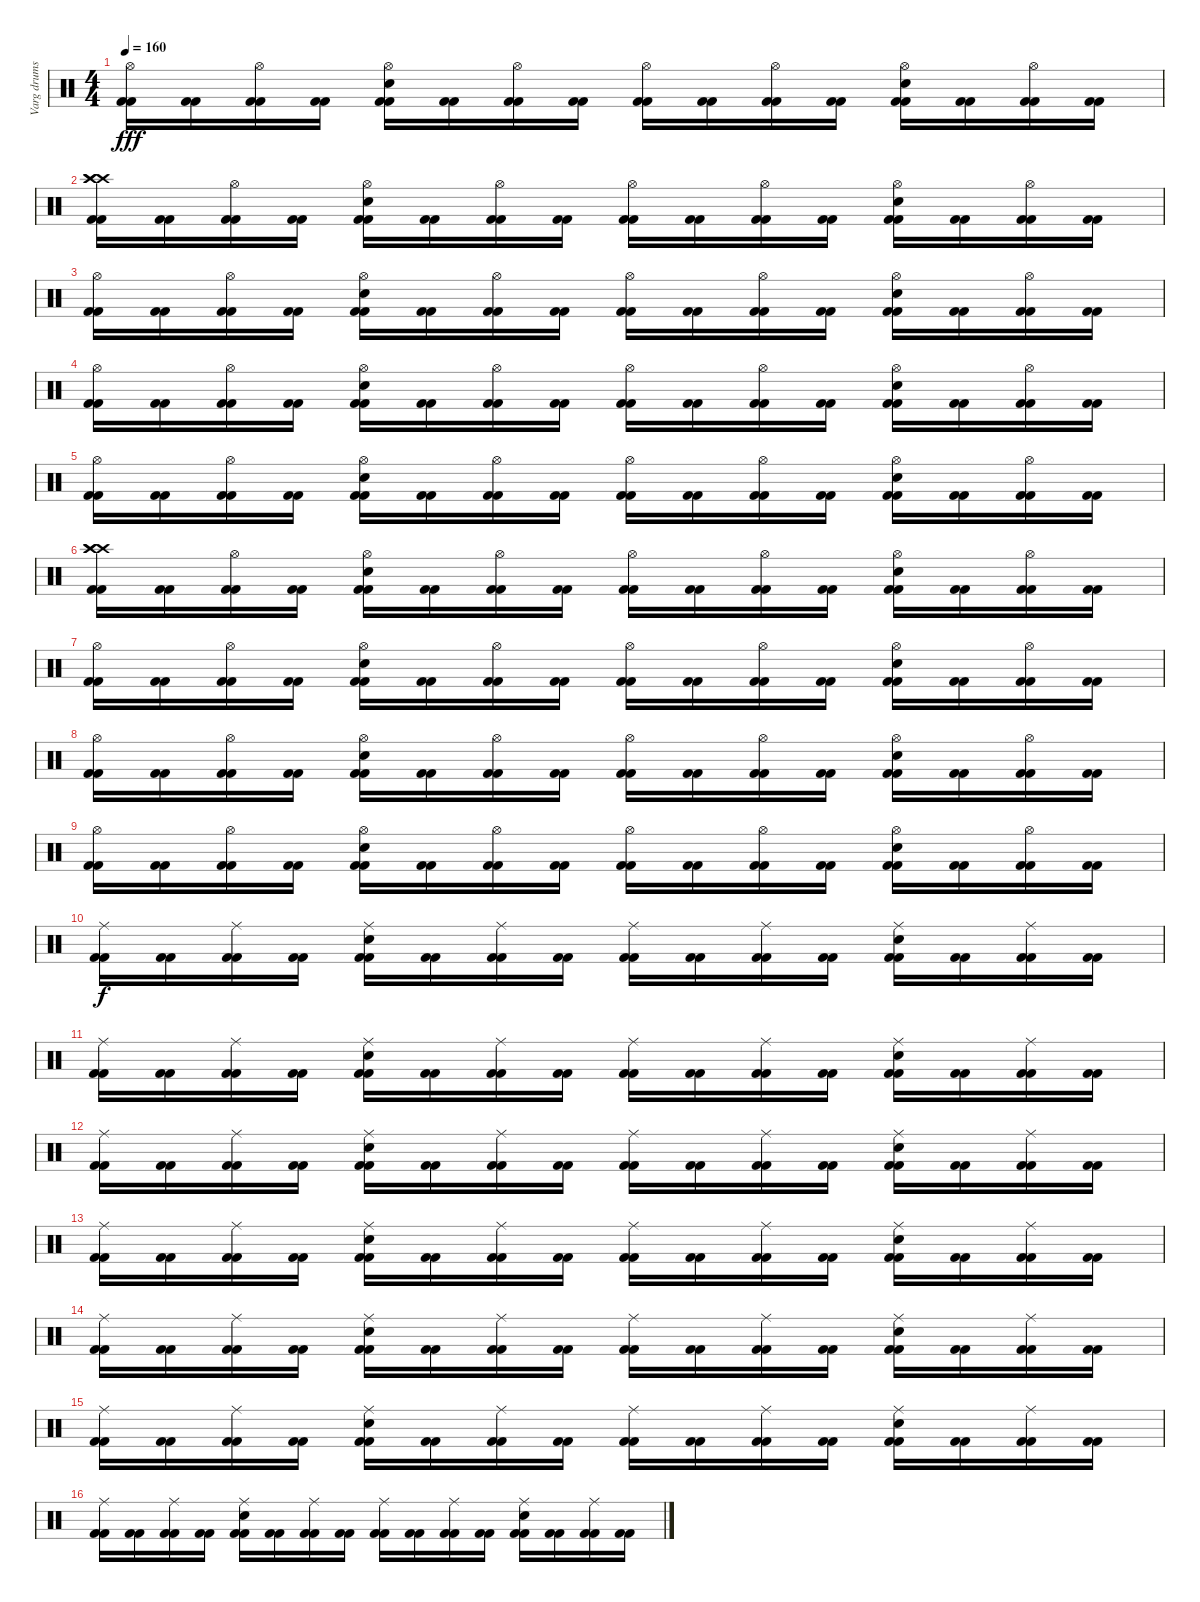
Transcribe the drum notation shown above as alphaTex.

\track ("Varg drums" "Varg drums") {instrument percussion}
\staff {score}
\articulation defaults
\ts (4 4)
\tempo 160
\clef neutral
\ks c
("Hi-Hat (open)" "Kick (hit) 2" "Kick (hit) 2").16{dy fff} ("Kick (hit) 2" "Kick (hit) 2").16 ("Hi-Hat (open)" "Kick (hit) 2" "Kick (hit) 2").16 ("Kick (hit) 2" "Kick (hit) 2").16 ("Hi-Hat (open)" "Electric Snare (hit)" "Kick (hit) 2" "Kick (hit) 2").16 ("Kick (hit) 2" "Kick (hit) 2").16 ("Hi-Hat (open)" "Kick (hit) 2" "Kick (hit) 2").16 ("Kick (hit) 2" "Kick (hit) 2").16 ("Hi-Hat (open)" "Kick (hit) 2" "Kick (hit) 2").16 ("Kick (hit) 2" "Kick (hit) 2").16 ("Hi-Hat (open)" "Kick (hit) 2" "Kick (hit) 2").16 ("Kick (hit) 2" "Kick (hit) 2").16 ("Hi-Hat (open)" "Electric Snare (hit)" "Kick (hit) 2" "Kick (hit) 2").16 ("Kick (hit) 2" "Kick (hit) 2").16 ("Hi-Hat (open)" "Kick (hit) 2" "Kick (hit) 2").16 ("Kick (hit) 2" "Kick (hit) 2").16 |
("Crash high (hit)" "Crash high (hit)" "Crash high (hit)" "Kick (hit) 2" "Kick (hit) 2").16 ("Kick (hit) 2" "Kick (hit) 2").16 ("Hi-Hat (open)" "Kick (hit) 2" "Kick (hit) 2").16 ("Kick (hit) 2" "Kick (hit) 2").16 ("Hi-Hat (open)" "Electric Snare (hit)" "Kick (hit) 2" "Kick (hit) 2").16 ("Kick (hit) 2" "Kick (hit) 2").16 ("Hi-Hat (open)" "Kick (hit) 2" "Kick (hit) 2").16 ("Kick (hit) 2" "Kick (hit) 2").16 ("Hi-Hat (open)" "Kick (hit) 2" "Kick (hit) 2").16 ("Kick (hit) 2" "Kick (hit) 2").16 ("Hi-Hat (open)" "Kick (hit) 2" "Kick (hit) 2").16 ("Kick (hit) 2" "Kick (hit) 2").16 ("Hi-Hat (open)" "Electric Snare (hit)" "Kick (hit) 2" "Kick (hit) 2").16 ("Kick (hit) 2" "Kick (hit) 2").16 ("Hi-Hat (open)" "Kick (hit) 2" "Kick (hit) 2").16 ("Kick (hit) 2" "Kick (hit) 2").16 |
("Hi-Hat (open)" "Kick (hit) 2" "Kick (hit) 2").16 ("Kick (hit) 2" "Kick (hit) 2").16 ("Hi-Hat (open)" "Kick (hit) 2" "Kick (hit) 2").16 ("Kick (hit) 2" "Kick (hit) 2").16 ("Hi-Hat (open)" "Electric Snare (hit)" "Kick (hit) 2" "Kick (hit) 2").16 ("Kick (hit) 2" "Kick (hit) 2").16 ("Hi-Hat (open)" "Kick (hit) 2" "Kick (hit) 2").16 ("Kick (hit) 2" "Kick (hit) 2").16 ("Hi-Hat (open)" "Kick (hit) 2" "Kick (hit) 2").16 ("Kick (hit) 2" "Kick (hit) 2").16 ("Hi-Hat (open)" "Kick (hit) 2" "Kick (hit) 2").16 ("Kick (hit) 2" "Kick (hit) 2").16 ("Hi-Hat (open)" "Electric Snare (hit)" "Kick (hit) 2" "Kick (hit) 2").16 ("Kick (hit) 2" "Kick (hit) 2").16 ("Hi-Hat (open)" "Kick (hit) 2" "Kick (hit) 2").16 ("Kick (hit) 2" "Kick (hit) 2").16 |
("Hi-Hat (open)" "Kick (hit) 2" "Kick (hit) 2").16 ("Kick (hit) 2" "Kick (hit) 2").16 ("Hi-Hat (open)" "Kick (hit) 2" "Kick (hit) 2").16 ("Kick (hit) 2" "Kick (hit) 2").16 ("Hi-Hat (open)" "Electric Snare (hit)" "Kick (hit) 2" "Kick (hit) 2").16 ("Kick (hit) 2" "Kick (hit) 2").16 ("Hi-Hat (open)" "Kick (hit) 2" "Kick (hit) 2").16 ("Kick (hit) 2" "Kick (hit) 2").16 ("Hi-Hat (open)" "Kick (hit) 2" "Kick (hit) 2").16 ("Kick (hit) 2" "Kick (hit) 2").16 ("Hi-Hat (open)" "Kick (hit) 2" "Kick (hit) 2").16 ("Kick (hit) 2" "Kick (hit) 2").16 ("Hi-Hat (open)" "Electric Snare (hit)" "Kick (hit) 2" "Kick (hit) 2").16 ("Kick (hit) 2" "Kick (hit) 2").16 ("Hi-Hat (open)" "Kick (hit) 2" "Kick (hit) 2").16 ("Kick (hit) 2" "Kick (hit) 2").16 |
("Hi-Hat (open)" "Kick (hit) 2" "Kick (hit) 2").16 ("Kick (hit) 2" "Kick (hit) 2").16 ("Hi-Hat (open)" "Kick (hit) 2" "Kick (hit) 2").16 ("Kick (hit) 2" "Kick (hit) 2").16 ("Hi-Hat (open)" "Electric Snare (hit)" "Kick (hit) 2" "Kick (hit) 2").16 ("Kick (hit) 2" "Kick (hit) 2").16 ("Hi-Hat (open)" "Kick (hit) 2" "Kick (hit) 2").16 ("Kick (hit) 2" "Kick (hit) 2").16 ("Hi-Hat (open)" "Kick (hit) 2" "Kick (hit) 2").16 ("Kick (hit) 2" "Kick (hit) 2").16 ("Hi-Hat (open)" "Kick (hit) 2" "Kick (hit) 2").16 ("Kick (hit) 2" "Kick (hit) 2").16 ("Hi-Hat (open)" "Electric Snare (hit)" "Kick (hit) 2" "Kick (hit) 2").16 ("Kick (hit) 2" "Kick (hit) 2").16 ("Hi-Hat (open)" "Kick (hit) 2" "Kick (hit) 2").16 ("Kick (hit) 2" "Kick (hit) 2").16 |
("Crash high (hit)" "Crash high (hit)" "Crash high (hit)" "Kick (hit) 2" "Kick (hit) 2").16 ("Kick (hit) 2" "Kick (hit) 2").16 ("Hi-Hat (open)" "Kick (hit) 2" "Kick (hit) 2").16 ("Kick (hit) 2" "Kick (hit) 2").16 ("Hi-Hat (open)" "Electric Snare (hit)" "Kick (hit) 2" "Kick (hit) 2").16 ("Kick (hit) 2" "Kick (hit) 2").16 ("Hi-Hat (open)" "Kick (hit) 2" "Kick (hit) 2").16 ("Kick (hit) 2" "Kick (hit) 2").16 ("Hi-Hat (open)" "Kick (hit) 2" "Kick (hit) 2").16 ("Kick (hit) 2" "Kick (hit) 2").16 ("Hi-Hat (open)" "Kick (hit) 2" "Kick (hit) 2").16 ("Kick (hit) 2" "Kick (hit) 2").16 ("Hi-Hat (open)" "Electric Snare (hit)" "Kick (hit) 2" "Kick (hit) 2").16 ("Kick (hit) 2" "Kick (hit) 2").16 ("Hi-Hat (open)" "Kick (hit) 2" "Kick (hit) 2").16 ("Kick (hit) 2" "Kick (hit) 2").16 |
("Hi-Hat (open)" "Kick (hit) 2" "Kick (hit) 2").16 ("Kick (hit) 2" "Kick (hit) 2").16 ("Hi-Hat (open)" "Kick (hit) 2" "Kick (hit) 2").16 ("Kick (hit) 2" "Kick (hit) 2").16 ("Hi-Hat (open)" "Electric Snare (hit)" "Kick (hit) 2" "Kick (hit) 2").16 ("Kick (hit) 2" "Kick (hit) 2").16 ("Hi-Hat (open)" "Kick (hit) 2" "Kick (hit) 2").16 ("Kick (hit) 2" "Kick (hit) 2").16 ("Hi-Hat (open)" "Kick (hit) 2" "Kick (hit) 2").16 ("Kick (hit) 2" "Kick (hit) 2").16 ("Hi-Hat (open)" "Kick (hit) 2" "Kick (hit) 2").16 ("Kick (hit) 2" "Kick (hit) 2").16 ("Hi-Hat (open)" "Electric Snare (hit)" "Kick (hit) 2" "Kick (hit) 2").16 ("Kick (hit) 2" "Kick (hit) 2").16 ("Hi-Hat (open)" "Kick (hit) 2" "Kick (hit) 2").16 ("Kick (hit) 2" "Kick (hit) 2").16 |
("Hi-Hat (open)" "Kick (hit) 2" "Kick (hit) 2").16 ("Kick (hit) 2" "Kick (hit) 2").16 ("Hi-Hat (open)" "Kick (hit) 2" "Kick (hit) 2").16 ("Kick (hit) 2" "Kick (hit) 2").16 ("Hi-Hat (open)" "Electric Snare (hit)" "Kick (hit) 2" "Kick (hit) 2").16 ("Kick (hit) 2" "Kick (hit) 2").16 ("Hi-Hat (open)" "Kick (hit) 2" "Kick (hit) 2").16 ("Kick (hit) 2" "Kick (hit) 2").16 ("Hi-Hat (open)" "Kick (hit) 2" "Kick (hit) 2").16 ("Kick (hit) 2" "Kick (hit) 2").16 ("Hi-Hat (open)" "Kick (hit) 2" "Kick (hit) 2").16 ("Kick (hit) 2" "Kick (hit) 2").16 ("Hi-Hat (open)" "Electric Snare (hit)" "Kick (hit) 2" "Kick (hit) 2").16 ("Kick (hit) 2" "Kick (hit) 2").16 ("Hi-Hat (open)" "Kick (hit) 2" "Kick (hit) 2").16 ("Kick (hit) 2" "Kick (hit) 2").16 |
("Hi-Hat (open)" "Kick (hit) 2" "Kick (hit) 2").16 ("Kick (hit) 2" "Kick (hit) 2").16 ("Hi-Hat (open)" "Kick (hit) 2" "Kick (hit) 2").16 ("Kick (hit) 2" "Kick (hit) 2").16 ("Hi-Hat (open)" "Electric Snare (hit)" "Kick (hit) 2" "Kick (hit) 2").16 ("Kick (hit) 2" "Kick (hit) 2").16 ("Hi-Hat (open)" "Kick (hit) 2" "Kick (hit) 2").16 ("Kick (hit) 2" "Kick (hit) 2").16 ("Hi-Hat (open)" "Kick (hit) 2" "Kick (hit) 2").16 ("Kick (hit) 2" "Kick (hit) 2").16 ("Hi-Hat (open)" "Kick (hit) 2" "Kick (hit) 2").16 ("Kick (hit) 2" "Kick (hit) 2").16 ("Hi-Hat (open)" "Electric Snare (hit)" "Kick (hit) 2" "Kick (hit) 2").16 ("Kick (hit) 2" "Kick (hit) 2").16 ("Hi-Hat (open)" "Kick (hit) 2" "Kick (hit) 2").16 ("Kick (hit) 2" "Kick (hit) 2").16 |
("Ride (middle)" "Kick (hit) 2" "Kick (hit) 2").16{dy f} ("Kick (hit) 2" "Kick (hit) 2").16 ("Ride (middle)" "Kick (hit) 2" "Kick (hit) 2").16 ("Kick (hit) 2" "Kick (hit) 2").16 ("Ride (middle)" "Electric Snare (hit)" "Kick (hit) 2" "Kick (hit) 2").16 ("Kick (hit) 2" "Kick (hit) 2").16 ("Ride (middle)" "Kick (hit) 2" "Kick (hit) 2").16 ("Kick (hit) 2" "Kick (hit) 2").16 ("Ride (middle)" "Kick (hit) 2" "Kick (hit) 2").16 ("Kick (hit) 2" "Kick (hit) 2").16 ("Ride (middle)" "Kick (hit) 2" "Kick (hit) 2").16 ("Kick (hit) 2" "Kick (hit) 2").16 ("Ride (middle)" "Electric Snare (hit)" "Kick (hit) 2" "Kick (hit) 2").16 ("Kick (hit) 2" "Kick (hit) 2").16 ("Ride (middle)" "Kick (hit) 2" "Kick (hit) 2").16 ("Kick (hit) 2" "Kick (hit) 2").16 |
("Ride (middle)" "Kick (hit) 2" "Kick (hit) 2").16 ("Kick (hit) 2" "Kick (hit) 2").16 ("Ride (middle)" "Kick (hit) 2" "Kick (hit) 2").16 ("Kick (hit) 2" "Kick (hit) 2").16 ("Ride (middle)" "Electric Snare (hit)" "Kick (hit) 2" "Kick (hit) 2").16 ("Kick (hit) 2" "Kick (hit) 2").16 ("Ride (middle)" "Kick (hit) 2" "Kick (hit) 2").16 ("Kick (hit) 2" "Kick (hit) 2").16 ("Ride (middle)" "Kick (hit) 2" "Kick (hit) 2").16 ("Kick (hit) 2" "Kick (hit) 2").16 ("Ride (middle)" "Kick (hit) 2" "Kick (hit) 2").16 ("Kick (hit) 2" "Kick (hit) 2").16 ("Ride (middle)" "Electric Snare (hit)" "Kick (hit) 2" "Kick (hit) 2").16 ("Kick (hit) 2" "Kick (hit) 2").16 ("Ride (middle)" "Kick (hit) 2" "Kick (hit) 2").16 ("Kick (hit) 2" "Kick (hit) 2").16 |
("Ride (middle)" "Kick (hit) 2" "Kick (hit) 2").16 ("Kick (hit) 2" "Kick (hit) 2").16 ("Ride (middle)" "Kick (hit) 2" "Kick (hit) 2").16 ("Kick (hit) 2" "Kick (hit) 2").16 ("Ride (middle)" "Electric Snare (hit)" "Kick (hit) 2" "Kick (hit) 2").16 ("Kick (hit) 2" "Kick (hit) 2").16 ("Ride (middle)" "Kick (hit) 2" "Kick (hit) 2").16 ("Kick (hit) 2" "Kick (hit) 2").16 ("Ride (middle)" "Kick (hit) 2" "Kick (hit) 2").16 ("Kick (hit) 2" "Kick (hit) 2").16 ("Ride (middle)" "Kick (hit) 2" "Kick (hit) 2").16 ("Kick (hit) 2" "Kick (hit) 2").16 ("Ride (middle)" "Electric Snare (hit)" "Kick (hit) 2" "Kick (hit) 2").16 ("Kick (hit) 2" "Kick (hit) 2").16 ("Ride (middle)" "Kick (hit) 2" "Kick (hit) 2").16 ("Kick (hit) 2" "Kick (hit) 2").16 |
("Ride (middle)" "Kick (hit) 2" "Kick (hit) 2").16 ("Kick (hit) 2" "Kick (hit) 2").16 ("Ride (middle)" "Kick (hit) 2" "Kick (hit) 2").16 ("Kick (hit) 2" "Kick (hit) 2").16 ("Ride (middle)" "Electric Snare (hit)" "Kick (hit) 2" "Kick (hit) 2").16 ("Kick (hit) 2" "Kick (hit) 2").16 ("Ride (middle)" "Kick (hit) 2" "Kick (hit) 2").16 ("Kick (hit) 2" "Kick (hit) 2").16 ("Ride (middle)" "Kick (hit) 2" "Kick (hit) 2").16 ("Kick (hit) 2" "Kick (hit) 2").16 ("Ride (middle)" "Kick (hit) 2" "Kick (hit) 2").16 ("Kick (hit) 2" "Kick (hit) 2").16 ("Ride (middle)" "Electric Snare (hit)" "Kick (hit) 2" "Kick (hit) 2").16 ("Kick (hit) 2" "Kick (hit) 2").16 ("Ride (middle)" "Kick (hit) 2" "Kick (hit) 2").16 ("Kick (hit) 2" "Kick (hit) 2").16 |
("Ride (middle)" "Kick (hit) 2" "Kick (hit) 2").16 ("Kick (hit) 2" "Kick (hit) 2").16 ("Ride (middle)" "Kick (hit) 2" "Kick (hit) 2").16 ("Kick (hit) 2" "Kick (hit) 2").16 ("Ride (middle)" "Electric Snare (hit)" "Kick (hit) 2" "Kick (hit) 2").16 ("Kick (hit) 2" "Kick (hit) 2").16 ("Ride (middle)" "Kick (hit) 2" "Kick (hit) 2").16 ("Kick (hit) 2" "Kick (hit) 2").16 ("Ride (middle)" "Kick (hit) 2" "Kick (hit) 2").16 ("Kick (hit) 2" "Kick (hit) 2").16 ("Ride (middle)" "Kick (hit) 2" "Kick (hit) 2").16 ("Kick (hit) 2" "Kick (hit) 2").16 ("Ride (middle)" "Electric Snare (hit)" "Kick (hit) 2" "Kick (hit) 2").16 ("Kick (hit) 2" "Kick (hit) 2").16 ("Ride (middle)" "Kick (hit) 2" "Kick (hit) 2").16 ("Kick (hit) 2" "Kick (hit) 2").16 |
("Ride (middle)" "Kick (hit) 2" "Kick (hit) 2").16 ("Kick (hit) 2" "Kick (hit) 2").16 ("Ride (middle)" "Kick (hit) 2" "Kick (hit) 2").16 ("Kick (hit) 2" "Kick (hit) 2").16 ("Ride (middle)" "Electric Snare (hit)" "Kick (hit) 2" "Kick (hit) 2").16 ("Kick (hit) 2" "Kick (hit) 2").16 ("Ride (middle)" "Kick (hit) 2" "Kick (hit) 2").16 ("Kick (hit) 2" "Kick (hit) 2").16 ("Ride (middle)" "Kick (hit) 2" "Kick (hit) 2").16 ("Kick (hit) 2" "Kick (hit) 2").16 ("Ride (middle)" "Kick (hit) 2" "Kick (hit) 2").16 ("Kick (hit) 2" "Kick (hit) 2").16 ("Ride (middle)" "Electric Snare (hit)" "Kick (hit) 2" "Kick (hit) 2").16 ("Kick (hit) 2" "Kick (hit) 2").16 ("Ride (middle)" "Kick (hit) 2" "Kick (hit) 2").16 ("Kick (hit) 2" "Kick (hit) 2").16 |
("Ride (middle)" "Kick (hit) 2" "Kick (hit) 2").16 ("Kick (hit) 2" "Kick (hit) 2").16 ("Ride (middle)" "Kick (hit) 2" "Kick (hit) 2").16 ("Kick (hit) 2" "Kick (hit) 2").16 ("Ride (middle)" "Electric Snare (hit)" "Kick (hit) 2" "Kick (hit) 2").16 ("Kick (hit) 2" "Kick (hit) 2").16 ("Ride (middle)" "Kick (hit) 2" "Kick (hit) 2").16 ("Kick (hit) 2" "Kick (hit) 2").16 ("Ride (middle)" "Kick (hit) 2" "Kick (hit) 2").16 ("Kick (hit) 2" "Kick (hit) 2").16 ("Ride (middle)" "Kick (hit) 2" "Kick (hit) 2").16 ("Kick (hit) 2" "Kick (hit) 2").16 ("Ride (middle)" "Electric Snare (hit)" "Kick (hit) 2" "Kick (hit) 2").16 ("Kick (hit) 2" "Kick (hit) 2").16 ("Ride (middle)" "Kick (hit) 2" "Kick (hit) 2").16 ("Kick (hit) 2" "Kick (hit) 2").16
